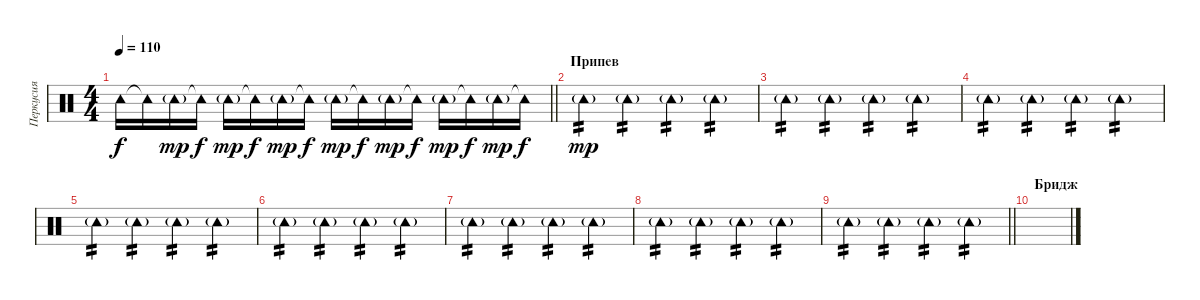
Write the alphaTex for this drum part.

\track ("Перкусия" "Перкусия") {instrument percussion}
\staff {score}
\articulation defaults
\ts (4 4)
\tempo 110
\clef neutral
\barLineRight lightlight
\ks c "Tambourine (hit)".16{dy f} "Tambourine (hit)"{t}.16 "Tambourine (hit)"{g}.16{dy mp} "Tambourine (hit)"{t}.16{dy f} "Tambourine (hit)"{g}.16{dy mp} "Tambourine (hit)"{t}.16{dy f} "Tambourine (hit)"{g}.16{dy mp} "Tambourine (hit)"{t}.16{dy f} "Tambourine (hit)"{g}.16{dy mp} "Tambourine (hit)"{t}.16{dy f} "Tambourine (hit)"{g}.16{dy mp} "Tambourine (hit)"{t}.16{dy f} "Tambourine (hit)"{g}.16{dy mp} "Tambourine (hit)"{t}.16{dy f} "Tambourine (hit)"{g}.16{dy mp} "Tambourine (hit)"{t}.16{dy f}
|
\section ("" "Припев")
"Tambourine (hit)"{g}.4{tp 2 dy mp} "Tambourine (hit)"{g}.4{tp 2} "Tambourine (hit)"{g}.4{tp 2} "Tambourine (hit)"{g}.4{tp 2} |
"Tambourine (hit)"{g}.4{tp 2} "Tambourine (hit)"{g}.4{tp 2} "Tambourine (hit)"{g}.4{tp 2} "Tambourine (hit)"{g}.4{tp 2} |
"Tambourine (hit)"{g}.4{tp 2} "Tambourine (hit)"{g}.4{tp 2} "Tambourine (hit)"{g}.4{tp 2} "Tambourine (hit)"{g}.4{tp 2} |
"Tambourine (hit)"{g}.4{tp 2} "Tambourine (hit)"{g}.4{tp 2} "Tambourine (hit)"{g}.4{tp 2} "Tambourine (hit)"{g}.4{tp 2} |
"Tambourine (hit)"{g}.4{tp 2} "Tambourine (hit)"{g}.4{tp 2} "Tambourine (hit)"{g}.4{tp 2} "Tambourine (hit)"{g}.4{tp 2} |
"Tambourine (hit)"{g}.4{tp 2} "Tambourine (hit)"{g}.4{tp 2} "Tambourine (hit)"{g}.4{tp 2} "Tambourine (hit)"{g}.4{tp 2} |
"Tambourine (hit)"{g}.4{tp 2} "Tambourine (hit)"{g}.4{tp 2} "Tambourine (hit)"{g}.4{tp 2} "Tambourine (hit)"{g}.4{tp 2} |
\barLineRight lightlight "Tambourine (hit)"{g}.4{tp 2} "Tambourine (hit)"{g}.4{tp 2} "Tambourine (hit)"{g}.4{tp 2} "Tambourine (hit)"{g}.4{tp 2}
|
\section ("" "Бридж")
